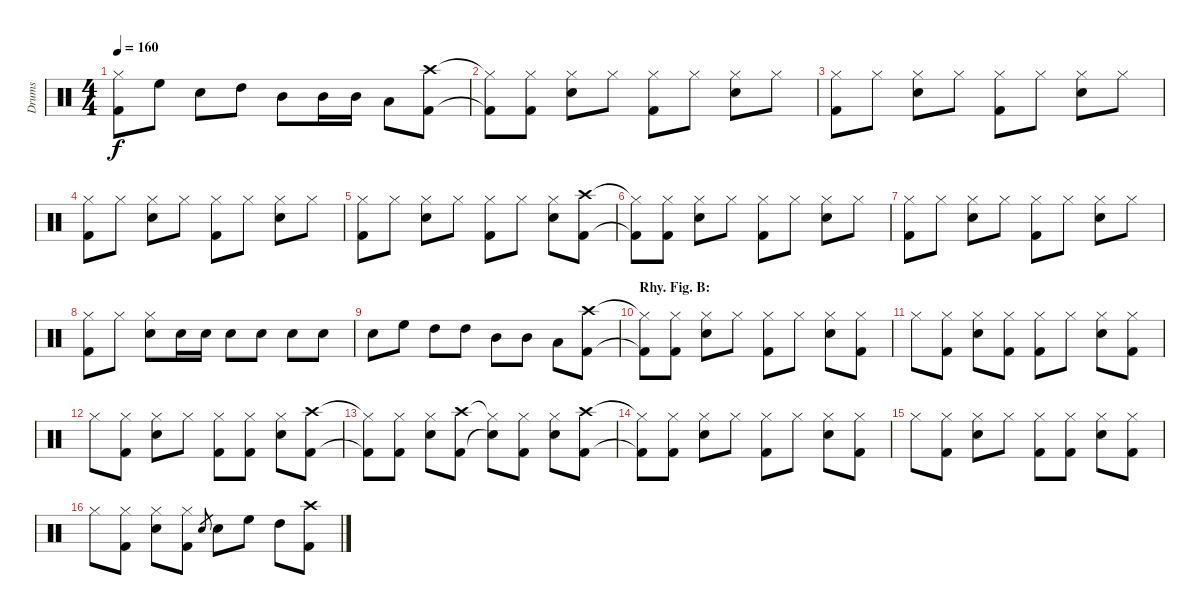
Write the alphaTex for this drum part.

\track ("Drums" "Drums") {instrument percussion}
\staff {score}
\articulation defaults
\ts (4 4)
\tempo 160
\clef neutral
\ks c
("Hi-Hat (closed)" "Kick (hit) 2").8{dy f} "High Floor Tom (hit)".8 "Electric Snare (hit)".8 "High Tom (hit)".8 "Mid Tom (hit)".8 "Mid Tom (hit)".16 "Mid Tom (hit)".16 "Low Tom (hit)".8 ("Crash high (hit)" "Kick (hit) 2").8 |
("Hi-Hat (closed)"{t} "Kick (hit) 2"{t}).8 ("Hi-Hat (closed)" "Kick (hit) 2").8 ("Hi-Hat (closed)" "Electric Snare (hit)").8 "Hi-Hat (closed)".8 ("Hi-Hat (closed)" "Kick (hit) 2").8 "Hi-Hat (closed)".8 ("Hi-Hat (closed)" "Electric Snare (hit)").8 "Hi-Hat (closed)".8 |
("Hi-Hat (closed)" "Kick (hit) 2").8 "Hi-Hat (closed)".8 ("Hi-Hat (closed)" "Electric Snare (hit)").8 "Hi-Hat (closed)".8 ("Hi-Hat (closed)" "Kick (hit) 2").8 "Hi-Hat (closed)".8 ("Hi-Hat (closed)" "Electric Snare (hit)").8 "Hi-Hat (closed)".8 |
("Hi-Hat (closed)" "Kick (hit) 2").8 "Hi-Hat (closed)".8 ("Hi-Hat (closed)" "Electric Snare (hit)").8 "Hi-Hat (closed)".8 ("Hi-Hat (closed)" "Kick (hit) 2").8 "Hi-Hat (closed)".8 ("Hi-Hat (closed)" "Electric Snare (hit)").8 "Hi-Hat (closed)".8 |
("Hi-Hat (closed)" "Kick (hit) 2").8 "Hi-Hat (closed)".8 ("Hi-Hat (closed)" "Electric Snare (hit)").8 "Hi-Hat (closed)".8 ("Hi-Hat (closed)" "Kick (hit) 2").8 "Hi-Hat (closed)".8 ("Hi-Hat (closed)" "Electric Snare (hit)").8 ("Crash high (hit)" "Kick (hit) 2").8 |
("Hi-Hat (closed)"{t} "Kick (hit) 2"{t}).8 ("Hi-Hat (closed)" "Kick (hit) 2").8 ("Hi-Hat (closed)" "Electric Snare (hit)").8 "Hi-Hat (closed)".8 ("Hi-Hat (closed)" "Kick (hit) 2").8 "Hi-Hat (closed)".8 ("Hi-Hat (closed)" "Electric Snare (hit)").8 "Hi-Hat (closed)".8 |
("Hi-Hat (closed)" "Kick (hit) 2").8 "Hi-Hat (closed)".8 ("Hi-Hat (closed)" "Electric Snare (hit)").8 "Hi-Hat (closed)".8 ("Hi-Hat (closed)" "Kick (hit) 2").8 "Hi-Hat (closed)".8 ("Hi-Hat (closed)" "Electric Snare (hit)").8 "Hi-Hat (closed)".8 |
("Hi-Hat (closed)" "Kick (hit) 2").8 "Hi-Hat (closed)".8 ("Hi-Hat (closed)" "Electric Snare (hit)").8 "Electric Snare (hit)".16 "Electric Snare (hit)".16 "Electric Snare (hit)".8 "Electric Snare (hit)".8 "Electric Snare (hit)".8 "Electric Snare (hit)".8 |
"Electric Snare (hit)".8 "High Floor Tom (hit)".8 "High Tom (hit)".8 "High Tom (hit)".8 "Mid Tom (hit)".8 "Mid Tom (hit)".8 "Low Tom (hit)".8 ("Crash high (hit)" "Kick (hit) 2").8 |
\section ("" "Rhy. Fig. B:")
("Hi-Hat (closed)"{t} "Kick (hit) 2"{t}).8 ("Hi-Hat (closed)" "Kick (hit) 2").8 ("Hi-Hat (closed)" "Electric Snare (hit)").8 "Hi-Hat (closed)".8 ("Hi-Hat (closed)" "Kick (hit) 2").8 "Hi-Hat (closed)".8 ("Hi-Hat (closed)" "Electric Snare (hit)").8 ("Hi-Hat (closed)" "Kick (hit) 2").8 |
"Hi-Hat (closed)".8 ("Hi-Hat (closed)" "Kick (hit) 2").8 ("Hi-Hat (closed)" "Electric Snare (hit)").8 ("Hi-Hat (closed)" "Kick (hit) 2").8 ("Hi-Hat (closed)" "Kick (hit) 2").8 "Hi-Hat (closed)".8 ("Hi-Hat (closed)" "Electric Snare (hit)").8 ("Hi-Hat (closed)" "Kick (hit) 2").8 |
"Hi-Hat (closed)".8 ("Hi-Hat (closed)" "Kick (hit) 2").8 ("Hi-Hat (closed)" "Electric Snare (hit)").8 "Hi-Hat (closed)".8 ("Hi-Hat (closed)" "Kick (hit) 2").8 ("Hi-Hat (closed)" "Kick (hit) 2").8 ("Hi-Hat (closed)" "Electric Snare (hit)").8 ("Crash high (hit)" "Kick (hit) 2").8 |
("Hi-Hat (closed)"{t} "Kick (hit) 2"{t}).8 ("Hi-Hat (closed)" "Kick (hit) 2").8 ("Hi-Hat (closed)" "Electric Snare (hit)").8 ("Crash high (hit)" "Kick (hit) 2").8 ("Hi-Hat (closed)"{t} "Snare (hit)"{t}).8 ("Hi-Hat (closed)" "Kick (hit) 2").8 ("Hi-Hat (closed)" "Electric Snare (hit)").8 ("Crash high (hit)" "Kick (hit) 2").8 |
("Hi-Hat (closed)"{t} "Kick (hit) 2"{t}).8 ("Hi-Hat (closed)" "Kick (hit) 2").8 ("Hi-Hat (closed)" "Electric Snare (hit)").8 "Hi-Hat (closed)".8 ("Hi-Hat (closed)" "Kick (hit) 2").8 "Hi-Hat (closed)".8 ("Hi-Hat (closed)" "Electric Snare (hit)").8 ("Hi-Hat (closed)" "Kick (hit) 2").8 |
"Hi-Hat (closed)".8 ("Hi-Hat (closed)" "Kick (hit) 2").8 ("Hi-Hat (closed)" "Electric Snare (hit)").8 "Hi-Hat (closed)".8 ("Hi-Hat (closed)" "Kick (hit) 2").8 ("Hi-Hat (closed)" "Kick (hit) 2").8 ("Hi-Hat (closed)" "Electric Snare (hit)").8 ("Hi-Hat (closed)" "Kick (hit) 2").8 |
"Hi-Hat (closed)".8 ("Hi-Hat (closed)" "Kick (hit) 2").8 ("Hi-Hat (closed)" "Electric Snare (hit)").8 ("Hi-Hat (closed)" "Kick (hit) 2").8 "Electric Snare (hit)".8{gr} "Electric Snare (hit)".8 "High Floor Tom (hit)".8 "High Tom (hit)".8 ("Crash high (hit)" "Kick (hit) 2").8
